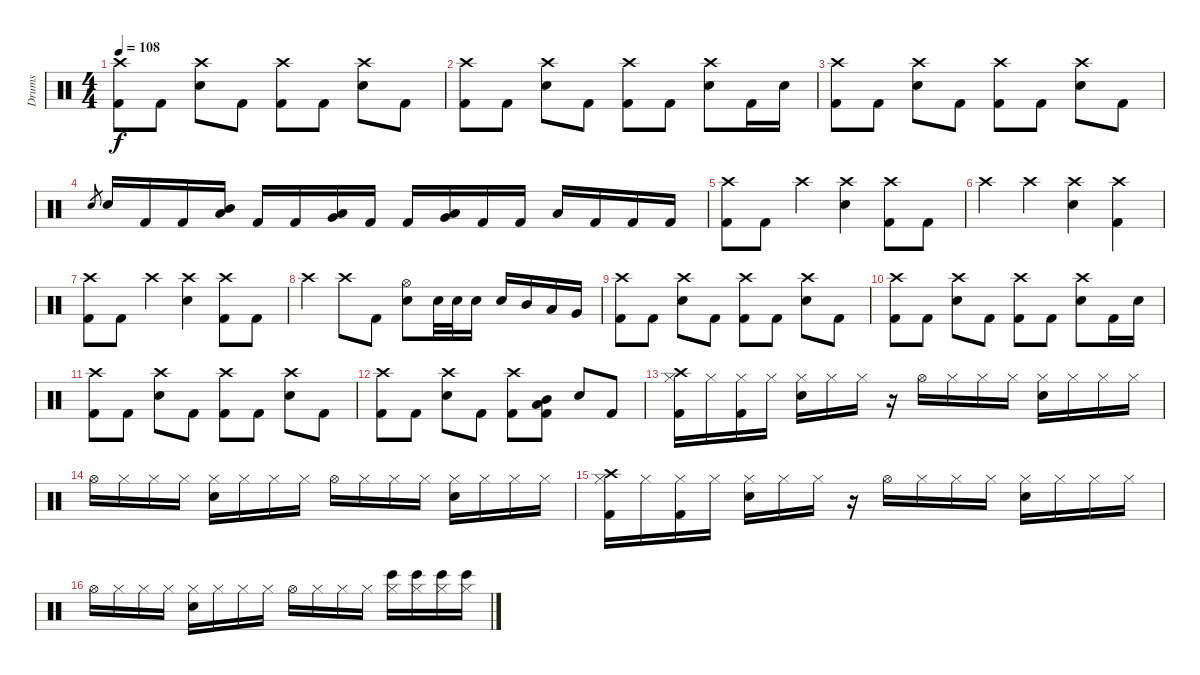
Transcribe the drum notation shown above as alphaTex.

\track ("Drums" "Drums") {instrument percussion}
\staff {score}
\articulation defaults
\ts (4 4)
\tempo 108
\clef neutral
\ks c
("Crash high (hit)" "Kick (hit) 2").8{dy f} "Kick (hit) 2".8 ("Crash high (hit)" "Electric Snare (hit)").8 "Kick (hit) 2".8 ("Crash high (hit)" "Kick (hit) 2").8 "Kick (hit) 2".8 ("Crash high (hit)" "Electric Snare (hit)").8 "Kick (hit) 2".8 |
("Crash high (hit)" "Kick (hit) 2").8 "Kick (hit) 2".8 ("Crash high (hit)" "Electric Snare (hit)").8 "Kick (hit) 2".8 ("Crash high (hit)" "Kick (hit) 2").8 "Kick (hit) 2".8 ("Crash high (hit)" "Electric Snare (hit)").8 "Kick (hit) 2".16 "Electric Snare (hit)".16 |
("Crash high (hit)" "Kick (hit) 2").8 "Kick (hit) 2".8 ("Crash high (hit)" "Electric Snare (hit)").8 "Kick (hit) 2".8 ("Crash high (hit)" "Kick (hit) 2").8 "Kick (hit) 2".8 ("Crash high (hit)" "Electric Snare (hit)").8 "Kick (hit) 2".8 |
"Electric Snare (hit)".8{gr} "Electric Snare (hit)".16 "Kick (hit) 2".16 "Kick (hit) 2".16 ("Mid Tom (hit)" "Low Tom (hit)").16 "Kick (hit) 2".16 "Kick (hit) 2".16 ("Very Low Tom (hit)" "Low Tom (hit)").16 "Kick (hit) 2".16 "Kick (hit) 2".16 ("Low Floor Tom (hit)" "Very Low Tom (hit)").16 "Kick (hit) 2".16 "Kick (hit) 2".16 "Low Floor Tom (hit)".16 "Kick (hit) 2".16 "Kick (hit) 2".16 "Kick (hit) 2".16 |
("Crash high (hit)" "Kick (hit) 2").8 "Kick (hit) 2".8 "Crash high (hit)".4 ("Crash high (hit)" "Electric Snare (hit)").4 ("Crash high (hit)" "Kick (hit) 2").8 "Kick (hit) 2".8 |
"Crash high (hit)".4 "Crash high (hit)".4 ("Crash high (hit)" "Electric Snare (hit)").4 ("Crash high (hit)" "Kick (hit) 2").4 |
("Crash high (hit)" "Kick (hit) 2").8 "Kick (hit) 2".8 "Crash high (hit)".4 ("Crash high (hit)" "Electric Snare (hit)").4 ("Crash high (hit)" "Kick (hit) 2").8 "Kick (hit) 2".8 |
"Crash high (hit)".4 "Crash high (hit)".8 "Kick (hit) 2".8 ("Hi-Hat (open)" "Electric Snare (hit)").8 "Electric Snare (hit)".32 "Electric Snare (hit)".32 "Electric Snare (hit)".16 "Electric Snare (hit)".16 "Mid Tom (hit)".16 "Low Tom (hit)".16 "Very Low Tom (hit)".16 |
("Crash high (hit)" "Kick (hit) 2").8 "Kick (hit) 2".8 ("Crash high (hit)" "Electric Snare (hit)").8 "Kick (hit) 2".8 ("Crash high (hit)" "Kick (hit) 2").8 "Kick (hit) 2".8 ("Crash high (hit)" "Electric Snare (hit)").8 "Kick (hit) 2".8 |
("Crash high (hit)" "Kick (hit) 2").8 "Kick (hit) 2".8 ("Crash high (hit)" "Electric Snare (hit)").8 "Kick (hit) 2".8 ("Crash high (hit)" "Kick (hit) 2").8 "Kick (hit) 2".8 ("Crash high (hit)" "Electric Snare (hit)").8 "Kick (hit) 2".16 "Electric Snare (hit)".16 |
("Crash high (hit)" "Kick (hit) 2").8 "Kick (hit) 2".8 ("Crash high (hit)" "Electric Snare (hit)").8 "Kick (hit) 2".8 ("Crash high (hit)" "Kick (hit) 2").8 "Kick (hit) 2".8 ("Crash high (hit)" "Electric Snare (hit)").8 "Kick (hit) 2".8 |
("Crash high (hit)" "Kick (hit) 2").8 "Kick (hit) 2".8 ("Crash high (hit)" "Electric Snare (hit)").8 "Kick (hit) 2".8 ("Crash high (hit)" "Kick (hit) 2").8 ("Low Tom (hit)" "Mid Tom (hit)" "Kick (hit) 2").8 "Electric Snare (hit)".8 "Kick (hit) 2".8 |
("Crash high (hit)" "Hi-Hat (closed)" "Kick (hit) 2").16 "Hi-Hat (closed)".16 ("Hi-Hat (closed)" "Kick (hit) 2").16 "Hi-Hat (closed)".16 ("Hi-Hat (closed)" "Electric Snare (hit)").16 "Hi-Hat (closed)".16 "Hi-Hat (closed)".16 r.16 "Hi-Hat (open)".16 "Hi-Hat (closed)".16 "Hi-Hat (closed)".16 "Hi-Hat (closed)".16 ("Hi-Hat (closed)" "Electric Snare (hit)").16 "Hi-Hat (closed)".16 "Hi-Hat (closed)".16 "Hi-Hat (closed)".16 |
"Hi-Hat (open)".16 "Hi-Hat (closed)".16 "Hi-Hat (closed)".16 "Hi-Hat (closed)".16 ("Hi-Hat (closed)" "Electric Snare (hit)").16 "Hi-Hat (closed)".16 "Hi-Hat (closed)".16 "Hi-Hat (closed)".16 "Hi-Hat (open)".16 "Hi-Hat (closed)".16 "Hi-Hat (closed)".16 "Hi-Hat (closed)".16 ("Hi-Hat (closed)" "Electric Snare (hit)").16 "Hi-Hat (closed)".16 "Hi-Hat (closed)".16 "Hi-Hat (closed)".16 |
("Crash high (hit)" "Hi-Hat (closed)" "Kick (hit) 2").16 "Hi-Hat (closed)".16 ("Hi-Hat (closed)" "Kick (hit) 2").16 "Hi-Hat (closed)".16 ("Hi-Hat (closed)" "Electric Snare (hit)").16 "Hi-Hat (closed)".16 "Hi-Hat (closed)".16 r.16 "Hi-Hat (open)".16 "Hi-Hat (closed)".16 "Hi-Hat (closed)".16 "Hi-Hat (closed)".16 ("Hi-Hat (closed)" "Electric Snare (hit)").16 "Hi-Hat (closed)".16 "Hi-Hat (closed)".16 "Hi-Hat (closed)".16 |
"Hi-Hat (open)".16 "Hi-Hat (closed)".16 "Hi-Hat (closed)".16 "Hi-Hat (closed)".16 ("Hi-Hat (closed)" "Electric Snare (hit)").16 "Hi-Hat (closed)".16 "Hi-Hat (closed)".16 "Hi-Hat (closed)".16 "Hi-Hat (open)".16 "Hi-Hat (closed)".16 "Hi-Hat (closed)".16 "Hi-Hat (closed)".16 ("Hi-Hat (closed)" "Bongo High (hit)").16 ("Hi-Hat (closed)" "Bongo High (hit)").16 ("Hi-Hat (closed)" "Bongo High (hit)").16 ("Hi-Hat (closed)" "Bongo High (hit)").16
